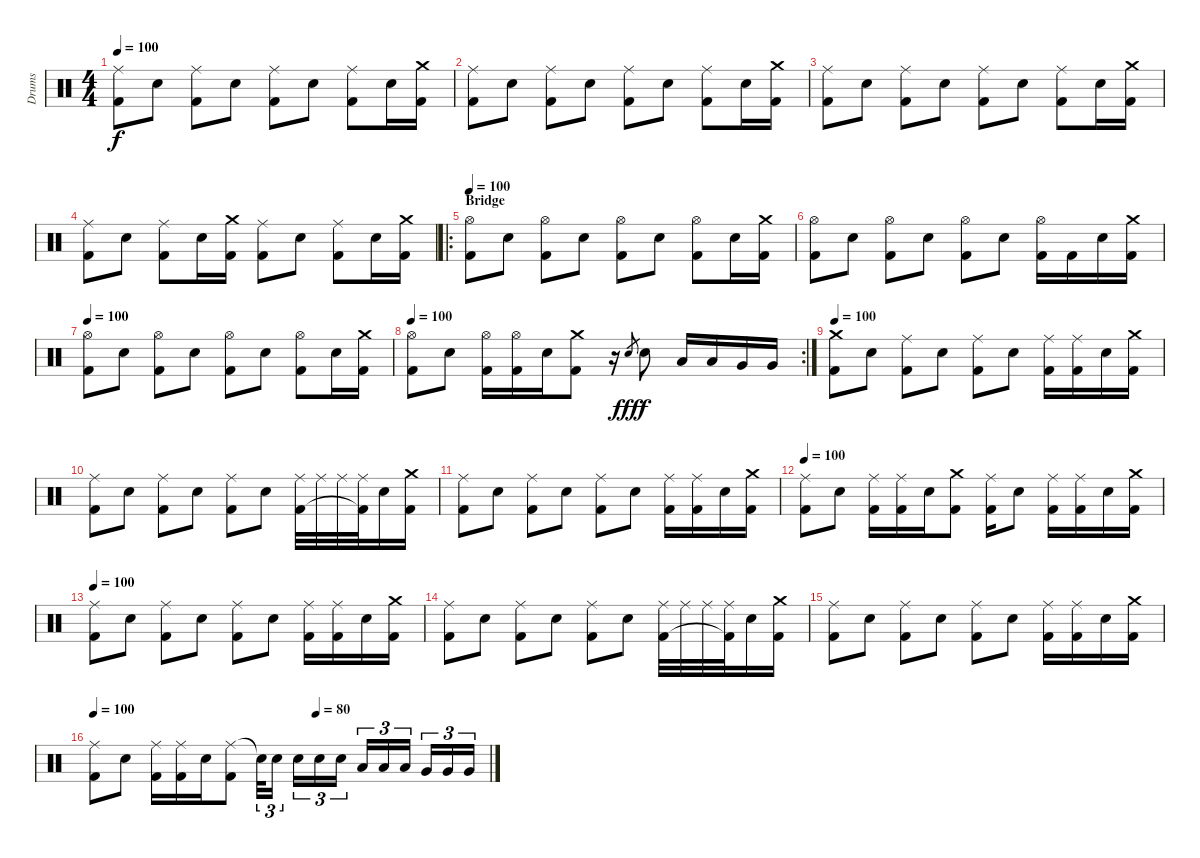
\track ("Drums" "Drums") {instrument percussion}
\staff {score}
\articulation defaults
\ts (4 4)
\tempo 100
\clef neutral
\ks c
("Ride (middle)" "Kick (hit) 2").8{dy f} "Snare (hit) 2".8 ("Ride (middle)" "Kick (hit) 2").8 "Snare (hit) 2".8 ("Ride (middle)" "Kick (hit) 2").8 "Snare (hit) 2".8 ("Ride (middle)" "Kick (hit) 2").8 "Snare (hit) 2".16 ("Crash medium (hit)" "Kick (hit) 2").16 |
("Ride (middle)" "Kick (hit) 2").8 "Snare (hit) 2".8 ("Ride (middle)" "Kick (hit) 2").8 "Snare (hit) 2".8 ("Ride (middle)" "Kick (hit) 2").8 "Snare (hit) 2".8 ("Ride (middle)" "Kick (hit) 2").8 "Snare (hit) 2".16 ("Crash medium (hit)" "Kick (hit) 2").16 |
("Ride (middle)" "Kick (hit) 2").8 "Snare (hit) 2".8 ("Ride (middle)" "Kick (hit) 2").8 "Snare (hit) 2".8 ("Ride (middle)" "Kick (hit) 2").8 "Snare (hit) 2".8 ("Ride (middle)" "Kick (hit) 2").8 "Snare (hit) 2".16 ("Crash medium (hit)" "Kick (hit) 2").16 |
("Ride (middle)" "Kick (hit) 2").8 "Snare (hit) 2".8 ("Ride (middle)" "Kick (hit) 2").8 "Snare (hit) 2".16 ("Crash medium (hit)" "Kick (hit) 2").16 ("Ride (middle)" "Kick (hit) 2").8 "Snare (hit) 2".8 ("Ride (middle)" "Kick (hit) 2").8 "Snare (hit) 2".16 ("Crash medium (hit)" "Kick (hit) 2").16 |
\ro
\section ("" "Bridge")
\tempo 100
("Hi-Hat (open)" "Kick (hit) 2").8 "Snare (hit) 2".8 ("Hi-Hat (open)" "Kick (hit) 2").8 "Snare (hit) 2".8 ("Hi-Hat (open)" "Kick (hit) 2").8 "Snare (hit) 2".8 ("Hi-Hat (open)" "Kick (hit) 2").8 "Snare (hit) 2".16 ("Crash medium (hit)" "Kick (hit) 2").16 |
("Hi-Hat (open)" "Kick (hit) 2").8 "Snare (hit) 2".8 ("Hi-Hat (open)" "Kick (hit) 2").8 "Snare (hit) 2".8 ("Hi-Hat (open)" "Kick (hit) 2").8 "Snare (hit) 2".8 ("Hi-Hat (open)" "Kick (hit) 2").16 "Kick (hit) 2".16 "Snare (hit) 2".16 ("Crash medium (hit)" "Kick (hit) 2").16 |
\tempo 100
("Hi-Hat (open)" "Kick (hit) 2").8 "Snare (hit) 2".8 ("Hi-Hat (open)" "Kick (hit) 2").8 "Snare (hit) 2".8 ("Hi-Hat (open)" "Kick (hit) 2").8 "Snare (hit) 2".8 ("Hi-Hat (open)" "Kick (hit) 2").8 "Snare (hit) 2".16 ("Crash medium (hit)" "Kick (hit) 2").16 |
\rc 2
\tempo 100
("Hi-Hat (open)" "Kick (hit) 2").8 "Snare (hit) 2".8 ("Hi-Hat (open)" "Kick (hit) 2").16 ("Hi-Hat (open)" "Kick (hit) 2").16 "Snare (hit) 2".16 ("Crash medium (hit)" "Kick (hit) 2").8 r.16 "Snare (hit) 2".8{gr dy fff} "Snare (hit) 2".8{dy f} "Low Tom (hit)".16 "Low Tom (hit)".16 "Very Low Tom (hit)".16 "Very Low Tom (hit)".16 |
\tempo 100
("Crash medium (hit)" "Kick (hit) 2").8 "Snare (hit) 2".8 ("Ride (middle)" "Kick (hit) 2").8 "Snare (hit) 2".8 ("Ride (middle)" "Kick (hit) 2").8 "Snare (hit) 2".8 ("Ride (middle)" "Kick (hit) 2").16 ("Ride (middle)" "Kick (hit) 2").16 "Snare (hit) 2".16 ("Crash medium (hit)" "Kick (hit) 2").16 |
("Ride (middle)" "Kick (hit) 2").8 "Snare (hit) 2".8 ("Ride (middle)" "Kick (hit) 2").8 "Snare (hit) 2".8 ("Ride (middle)" "Kick (hit) 2").8 "Snare (hit) 2".8 ("Ride (middle)" "Kick (hit) 2").32 "Ride (middle)".32 "Ride (middle)".32 ("Ride (middle)" "Kick (hit) 2"{t}).32 "Snare (hit) 2".16 ("Crash medium (hit)" "Kick (hit) 2").16 |
("Ride (middle)" "Kick (hit) 2").8 "Snare (hit) 2".8 ("Ride (middle)" "Kick (hit) 2").8 "Snare (hit) 2".8 ("Ride (middle)" "Kick (hit) 2").8 "Snare (hit) 2".8 ("Ride (middle)" "Kick (hit) 2").16 ("Ride (middle)" "Kick (hit) 2").16 "Snare (hit) 2".16 ("Crash medium (hit)" "Kick (hit) 2").16 |
\tempo 100
("Ride (middle)" "Kick (hit) 2").8 "Snare (hit) 2".8 ("Ride (middle)" "Kick (hit) 2").16 ("Ride (middle)" "Kick (hit) 2").16 "Snare (hit) 2".16 ("Crash medium (hit)" "Kick (hit) 2").8 ("Ride (middle)" "Kick (hit) 2").16 "Snare (hit) 2".8 ("Ride (middle)" "Kick (hit) 2").16 ("Ride (middle)" "Kick (hit) 2").16 "Snare (hit) 2".16 ("Crash medium (hit)" "Kick (hit) 2").16 |
\tempo 100
("Ride (middle)" "Kick (hit) 2").8 "Snare (hit) 2".8 ("Ride (middle)" "Kick (hit) 2").8 "Snare (hit) 2".8 ("Ride (middle)" "Kick (hit) 2").8 "Snare (hit) 2".8 ("Ride (middle)" "Kick (hit) 2").16 ("Ride (middle)" "Kick (hit) 2").16 "Snare (hit) 2".16 ("Crash medium (hit)" "Kick (hit) 2").16 |
("Ride (middle)" "Kick (hit) 2").8 "Snare (hit) 2".8 ("Ride (middle)" "Kick (hit) 2").8 "Snare (hit) 2".8 ("Ride (middle)" "Kick (hit) 2").8 "Snare (hit) 2".8 ("Ride (middle)" "Kick (hit) 2").32 "Ride (middle)".32 "Ride (middle)".32 ("Ride (middle)" "Kick (hit) 2"{t}).32 "Snare (hit) 2".16 ("Crash medium (hit)" "Kick (hit) 2").16 |
("Ride (middle)" "Kick (hit) 2").8 "Snare (hit) 2".8 ("Ride (middle)" "Kick (hit) 2").8 "Snare (hit) 2".8 ("Ride (middle)" "Kick (hit) 2").8 "Snare (hit) 2".8 ("Ride (middle)" "Kick (hit) 2").16 ("Ride (middle)" "Kick (hit) 2").16 "Snare (hit) 2".16 ("Crash medium (hit)" "Kick (hit) 2").16 |
\tempo 100
\tempo (80 0.5625)
("Ride (middle)" "Kick (hit) 2").8 "Snare (hit) 2".8 ("Ride (middle)" "Kick (hit) 2").16 ("Ride (middle)" "Kick (hit) 2").16 "Snare (hit) 2".16 ("Ride (middle)" "Kick (hit) 2").8 "Snare (hit)"{t}.32{tu (3 2)} "Snare (hit) 2".16{tu (3 2)} "Snare (hit) 2".16{tu (3 2)} "Snare (hit) 2".16{tu (3 2)} "Snare (hit) 2".16{tu (3 2)} "Low Tom (hit)".16{tu (3 2)} "Low Tom (hit)".16{tu (3 2)} "Low Tom (hit)".16{tu (3 2)} "Very Low Tom (hit)".16{tu (3 2)} "Very Low Tom (hit)".16{tu (3 2)} "Very Low Tom (hit)".16{tu (3 2)}
